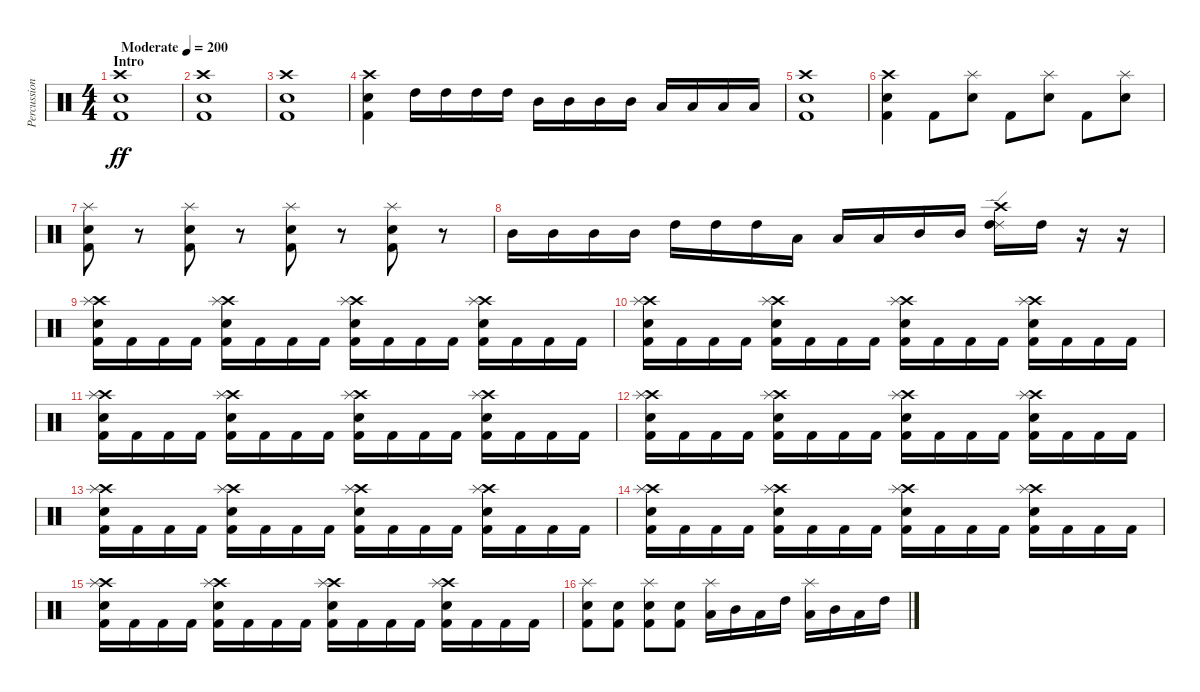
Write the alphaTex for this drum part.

\track ("Percussion" "Percussion") {instrument percussion}
\staff {score}
\articulation defaults
\ts (4 4)
\section ("" "Intro")
\tempo (200 "Moderate")
\clef neutral
\ks c
("Crash high (hit)" "Electric Snare (hit)" "Kick (hit) 2").1{dy ff} |
("Crash high (hit)" "Electric Snare (hit)" "Kick (hit) 2").1 |
("Crash high (hit)" "Electric Snare (hit)" "Kick (hit) 2").1 |
("Crash high (hit)" "Electric Snare (hit)" "Kick (hit) 2").4 "High Tom (hit)".16 "High Tom (hit)".16 "High Tom (hit)".16 "High Tom (hit)".16 "Mid Tom (hit)".16 "Mid Tom (hit)".16 "Mid Tom (hit)".16 "Mid Tom (hit)".16 "Low Tom (hit)".16 "Low Tom (hit)".16 "Low Tom (hit)".16 "Low Tom (hit)".16 |
("Crash high (hit)" "Electric Snare (hit)" "Kick (hit) 2").1 |
("Crash high (hit)" "Electric Snare (hit)" "Kick (hit) 2").4 "Kick (hit) 2".8 ("Splash (hit)" "Electric Snare (hit)").8 "Kick (hit) 2".8 ("Splash (hit)" "Electric Snare (hit)").8 "Kick (hit) 2".8 ("Splash (hit)" "Electric Snare (hit)").8 |
("Splash (hit)" "Electric Snare (hit)" "Kick (hit) 2").8 r.8 ("Splash (hit)" "Electric Snare (hit)" "Kick (hit) 2").8 r.8 ("Splash (hit)" "Electric Snare (hit)" "Kick (hit) 2").8 r.8 ("Splash (hit)" "Electric Snare (hit)" "Kick (hit) 2").8 r.8 |
"Mid Tom (hit)".16 "Mid Tom (hit)".16 "Mid Tom (hit)".16 "Mid Tom (hit)".16 "High Tom (hit)".16 "High Tom (hit)".16 "High Tom (hit)".16 "Low Tom (hit)".16 "Low Tom (hit)".16 "Low Tom (hit)".16 "Mid Tom (hit)".16 "Mid Tom (hit)".16 ("Ride (edge) 2" "Crash high (hit)" "High Tom (hit)").16 "High Tom (hit)".16 r.16 r.16 |
("Crash high (hit)" "Splash (hit)" "Electric Snare (hit)" "Kick (hit) 2").16 "Kick (hit) 2".16 "Kick (hit) 2".16 "Kick (hit) 2".16 ("Crash high (hit)" "Splash (hit)" "Electric Snare (hit)" "Kick (hit) 2").16 "Kick (hit) 2".16 "Kick (hit) 2".16 "Kick (hit) 2".16 ("Crash high (hit)" "Splash (hit)" "Electric Snare (hit)" "Kick (hit) 2").16 "Kick (hit) 2".16 "Kick (hit) 2".16 "Kick (hit) 2".16 ("Crash high (hit)" "Splash (hit)" "Electric Snare (hit)" "Kick (hit) 2").16 "Kick (hit) 2".16 "Kick (hit) 2".16 "Kick (hit) 2".16 |
("Crash high (hit)" "Splash (hit)" "Electric Snare (hit)" "Kick (hit) 2").16 "Kick (hit) 2".16 "Kick (hit) 2".16 "Kick (hit) 2".16 ("Crash high (hit)" "Splash (hit)" "Electric Snare (hit)" "Kick (hit) 2").16 "Kick (hit) 2".16 "Kick (hit) 2".16 "Kick (hit) 2".16 ("Crash high (hit)" "Splash (hit)" "Electric Snare (hit)" "Kick (hit) 2").16 "Kick (hit) 2".16 "Kick (hit) 2".16 "Kick (hit) 2".16 ("Crash high (hit)" "Splash (hit)" "Electric Snare (hit)" "Kick (hit) 2").16 "Kick (hit) 2".16 "Kick (hit) 2".16 "Kick (hit) 2".16 |
("Crash high (hit)" "Splash (hit)" "Electric Snare (hit)" "Kick (hit) 2").16 "Kick (hit) 2".16 "Kick (hit) 2".16 "Kick (hit) 2".16 ("Crash high (hit)" "Splash (hit)" "Electric Snare (hit)" "Kick (hit) 2").16 "Kick (hit) 2".16 "Kick (hit) 2".16 "Kick (hit) 2".16 ("Crash high (hit)" "Splash (hit)" "Electric Snare (hit)" "Kick (hit) 2").16 "Kick (hit) 2".16 "Kick (hit) 2".16 "Kick (hit) 2".16 ("Crash high (hit)" "Splash (hit)" "Electric Snare (hit)" "Kick (hit) 2").16 "Kick (hit) 2".16 "Kick (hit) 2".16 "Kick (hit) 2".16 |
("Crash high (hit)" "Splash (hit)" "Electric Snare (hit)" "Kick (hit) 2").16 "Kick (hit) 2".16 "Kick (hit) 2".16 "Kick (hit) 2".16 ("Crash high (hit)" "Splash (hit)" "Electric Snare (hit)" "Kick (hit) 2").16 "Kick (hit) 2".16 "Kick (hit) 2".16 "Kick (hit) 2".16 ("Crash high (hit)" "Splash (hit)" "Electric Snare (hit)" "Kick (hit) 2").16 "Kick (hit) 2".16 "Kick (hit) 2".16 "Kick (hit) 2".16 ("Crash high (hit)" "Splash (hit)" "Electric Snare (hit)" "Kick (hit) 2").16 "Kick (hit) 2".16 "Kick (hit) 2".16 "Kick (hit) 2".16 |
("Crash high (hit)" "Splash (hit)" "Electric Snare (hit)" "Kick (hit) 2").16 "Kick (hit) 2".16 "Kick (hit) 2".16 "Kick (hit) 2".16 ("Crash high (hit)" "Splash (hit)" "Electric Snare (hit)" "Kick (hit) 2").16 "Kick (hit) 2".16 "Kick (hit) 2".16 "Kick (hit) 2".16 ("Crash high (hit)" "Splash (hit)" "Electric Snare (hit)" "Kick (hit) 2").16 "Kick (hit) 2".16 "Kick (hit) 2".16 "Kick (hit) 2".16 ("Crash high (hit)" "Splash (hit)" "Electric Snare (hit)" "Kick (hit) 2").16 "Kick (hit) 2".16 "Kick (hit) 2".16 "Kick (hit) 2".16 |
("Crash high (hit)" "Splash (hit)" "Electric Snare (hit)" "Kick (hit) 2").16 "Kick (hit) 2".16 "Kick (hit) 2".16 "Kick (hit) 2".16 ("Crash high (hit)" "Splash (hit)" "Electric Snare (hit)" "Kick (hit) 2").16 "Kick (hit) 2".16 "Kick (hit) 2".16 "Kick (hit) 2".16 ("Crash high (hit)" "Splash (hit)" "Electric Snare (hit)" "Kick (hit) 2").16 "Kick (hit) 2".16 "Kick (hit) 2".16 "Kick (hit) 2".16 ("Crash high (hit)" "Splash (hit)" "Electric Snare (hit)" "Kick (hit) 2").16 "Kick (hit) 2".16 "Kick (hit) 2".16 "Kick (hit) 2".16 |
("Crash high (hit)" "Splash (hit)" "Electric Snare (hit)" "Kick (hit) 2").16 "Kick (hit) 2".16 "Kick (hit) 2".16 "Kick (hit) 2".16 ("Crash high (hit)" "Splash (hit)" "Electric Snare (hit)" "Kick (hit) 2").16 "Kick (hit) 2".16 "Kick (hit) 2".16 "Kick (hit) 2".16 ("Crash high (hit)" "Splash (hit)" "Electric Snare (hit)" "Kick (hit) 2").16 "Kick (hit) 2".16 "Kick (hit) 2".16 "Kick (hit) 2".16 ("Crash high (hit)" "Splash (hit)" "Electric Snare (hit)" "Kick (hit) 2").16 "Kick (hit) 2".16 "Kick (hit) 2".16 "Kick (hit) 2".16 |
("Splash (hit)" "Electric Snare (hit)" "Kick (hit) 2").8 ("Electric Snare (hit)" "Kick (hit) 2").8 ("Splash (hit)" "Electric Snare (hit)" "Kick (hit) 2").8 ("Electric Snare (hit)" "Kick (hit) 2").8 ("Splash (hit)" "Low Tom (hit)").16 "Mid Tom (hit)".16 "Low Tom (hit)".16 "High Tom (hit)".16 ("Splash (hit)" "Low Tom (hit)").16 "Mid Tom (hit)".16 "Low Tom (hit)".16 "High Tom (hit)".16
